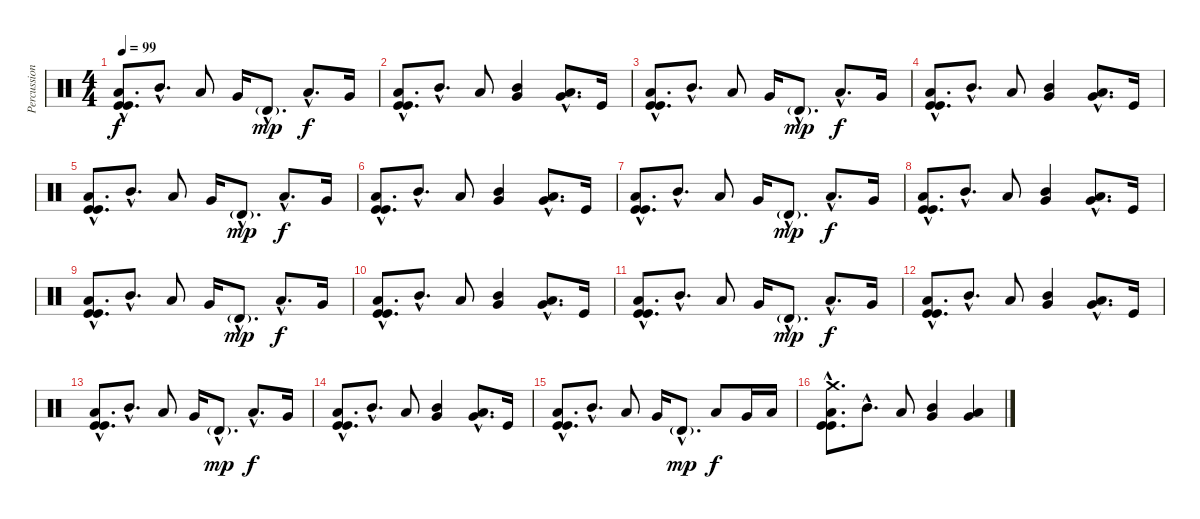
\track ("Percussions2" "Percussion") {instrument percussion}
\staff {score}
\articulation defaults
\ts (4 4)
\tempo 99
\clef neutral
\ks c
("Low Floor Tom (hit)"{hac} "Kick (hit)"{hac} "Kick (hit)"{hac}).8{d dy f} "Mid Tom (hit)"{hac}.8{d} "Low Tom (hit)".8 "Very Low Tom (hit)".16 "Timbale high (hit)"{g hac}.8{d dy mp} "Low Floor Tom (hit)"{hac}.8{d dy f} "Very Low Tom (hit)".16 |
("Low Floor Tom (hit)"{hac} "Kick (hit)"{hac} "Kick (hit)"{hac}).8{d} "Mid Tom (hit)"{hac}.8{d} "Low Tom (hit)".8 ("Very Low Tom (hit)" "Mid Tom (hit)").4 ("Very Low Tom (hit)"{hac} "Low Floor Tom (hit)"{hac}).8{d} "Kick (hit)".16 |
("Low Floor Tom (hit)"{hac} "Kick (hit)"{hac} "Kick (hit)"{hac}).8{d} "Mid Tom (hit)"{hac}.8{d} "Low Tom (hit)".8 "Very Low Tom (hit)".16 "Timbale high (hit)"{g hac}.8{d dy mp} "Low Floor Tom (hit)"{hac}.8{d dy f} "Very Low Tom (hit)".16 |
("Low Floor Tom (hit)"{hac} "Kick (hit)"{hac} "Kick (hit)"{hac}).8{d} "Mid Tom (hit)"{hac}.8{d} "Low Tom (hit)".8 ("Very Low Tom (hit)" "Mid Tom (hit)").4 ("Very Low Tom (hit)"{hac} "Low Floor Tom (hit)"{hac}).8{d} "Kick (hit)".16 |
("Low Floor Tom (hit)"{hac} "Kick (hit)"{hac} "Kick (hit)"{hac}).8{d} "Mid Tom (hit)"{hac}.8{d} "Low Tom (hit)".8 "Very Low Tom (hit)".16 "Timbale high (hit)"{g hac}.8{d dy mp} "Low Floor Tom (hit)"{hac}.8{d dy f} "Very Low Tom (hit)".16 |
("Low Floor Tom (hit)"{hac} "Kick (hit)"{hac} "Kick (hit)"{hac}).8{d} "Mid Tom (hit)"{hac}.8{d} "Low Tom (hit)".8 ("Very Low Tom (hit)" "Mid Tom (hit)").4 ("Very Low Tom (hit)"{hac} "Low Floor Tom (hit)"{hac}).8{d} "Kick (hit)".16 |
("Low Floor Tom (hit)"{hac} "Kick (hit)"{hac} "Kick (hit)"{hac}).8{d} "Mid Tom (hit)"{hac}.8{d} "Low Tom (hit)".8 "Very Low Tom (hit)".16 "Timbale high (hit)"{g hac}.8{d dy mp} "Low Floor Tom (hit)"{hac}.8{d dy f} "Very Low Tom (hit)".16 |
("Low Floor Tom (hit)"{hac} "Kick (hit)"{hac} "Kick (hit)"{hac}).8{d} "Mid Tom (hit)"{hac}.8{d} "Low Tom (hit)".8 ("Very Low Tom (hit)" "Mid Tom (hit)").4 ("Very Low Tom (hit)"{hac} "Low Floor Tom (hit)"{hac}).8{d} "Kick (hit)".16 |
("Low Floor Tom (hit)"{hac} "Kick (hit)"{hac} "Kick (hit)"{hac}).8{d} "Mid Tom (hit)"{hac}.8{d} "Low Tom (hit)".8 "Very Low Tom (hit)".16 "Timbale high (hit)"{g hac}.8{d dy mp} "Low Floor Tom (hit)"{hac}.8{d dy f} "Very Low Tom (hit)".16 |
("Low Floor Tom (hit)"{hac} "Kick (hit)"{hac} "Kick (hit)"{hac}).8{d} "Mid Tom (hit)"{hac}.8{d} "Low Tom (hit)".8 ("Very Low Tom (hit)" "Mid Tom (hit)").4 ("Very Low Tom (hit)"{hac} "Low Floor Tom (hit)"{hac}).8{d} "Kick (hit)".16 |
("Low Floor Tom (hit)"{hac} "Kick (hit)"{hac} "Kick (hit)"{hac}).8{d} "Mid Tom (hit)"{hac}.8{d} "Low Tom (hit)".8 "Very Low Tom (hit)".16 "Timbale high (hit)"{g hac}.8{d dy mp} "Low Floor Tom (hit)"{hac}.8{d dy f} "Very Low Tom (hit)".16 |
("Low Floor Tom (hit)"{hac} "Kick (hit)"{hac} "Kick (hit)"{hac}).8{d} "Mid Tom (hit)"{hac}.8{d} "Low Tom (hit)".8 ("Very Low Tom (hit)" "Mid Tom (hit)").4 ("Very Low Tom (hit)"{hac} "Low Floor Tom (hit)"{hac}).8{d} "Kick (hit)".16 |
("Low Floor Tom (hit)"{hac} "Kick (hit)"{hac} "Kick (hit)"{hac}).8{d} "Mid Tom (hit)"{hac}.8{d} "Low Tom (hit)".8 "Very Low Tom (hit)".16 "Timbale high (hit)"{g hac}.8{d dy mp} "Low Floor Tom (hit)"{hac}.8{d dy f} "Very Low Tom (hit)".16 |
("Low Floor Tom (hit)"{hac} "Kick (hit)"{hac} "Kick (hit)"{hac}).8{d} "Mid Tom (hit)"{hac}.8{d} "Low Tom (hit)".8 ("Very Low Tom (hit)" "Mid Tom (hit)").4 ("Very Low Tom (hit)"{hac} "Low Floor Tom (hit)"{hac}).8{d} "Kick (hit)".16 |
("Low Floor Tom (hit)"{hac} "Kick (hit)"{hac} "Kick (hit)"{hac}).8{d} "Mid Tom (hit)"{hac}.8{d} "Low Tom (hit)".8 "Very Low Tom (hit)".16 "Timbale high (hit)"{g hac}.8{d dy mp} "Low Floor Tom (hit)".8{dy f} "Very Low Tom (hit)".16 "Low Floor Tom (hit)".16 |
("Low Floor Tom (hit)"{hac} "Crash medium (hit)"{hac} "Kick (hit)"{hac} "Kick (hit)"{hac}).8{d} "Mid Tom (hit)"{hac}.8{d} "Low Tom (hit)".8 ("Very Low Tom (hit)" "Mid Tom (hit)").4 ("Low Floor Tom (hit)" "Very Low Tom (hit)").4
